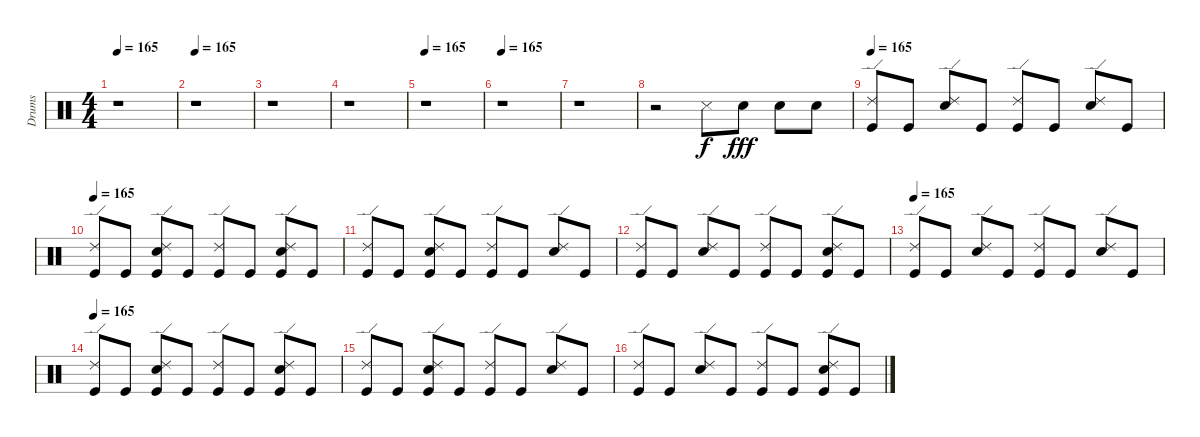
\track ("Drums" "Drums") {instrument percussion}
\staff {score}
\articulation defaults
\ts (4 4)
\tempo 165
\clef neutral
\ks c
r.1{dy f} |
\tempo 165
r.1 |
r.1 |
r.1 |
\tempo 165
r.1 |
\tempo 165
r.1 |
r.1 |
r.2 "Snare (side stick) 3".8 "Snare (hit) 2".8{dy fff} "Snare (hit) 2".8 "Snare (hit) 2".8 |
\tempo 165
("Ride (edge) 2" "Kick (hit)").8 "Kick (hit)".8 ("Ride (edge) 2" "Snare (hit) 2").8 "Kick (hit)".8 ("Ride (edge) 2" "Kick (hit)").8 "Kick (hit)".8 ("Ride (edge) 2" "Snare (hit) 2").8 "Kick (hit)".8 |
\tempo 165
("Ride (edge) 2" "Kick (hit)").8 "Kick (hit)".8 ("Ride (edge) 2" "Snare (hit) 2" "Kick (hit)").8 "Kick (hit)".8 ("Ride (edge) 2" "Kick (hit)").8 "Kick (hit)".8 ("Ride (edge) 2" "Snare (hit) 2" "Kick (hit)").8 "Kick (hit)".8 |
("Ride (edge) 2" "Kick (hit)").8 "Kick (hit)".8 ("Ride (edge) 2" "Snare (hit) 2" "Kick (hit)").8 "Kick (hit)".8 ("Ride (edge) 2" "Kick (hit)").8 "Kick (hit)".8 ("Ride (edge) 2" "Snare (hit) 2").8 "Kick (hit)".8 |
("Ride (edge) 2" "Kick (hit)").8 "Kick (hit)".8 ("Ride (edge) 2" "Snare (hit) 2").8 "Kick (hit)".8 ("Ride (edge) 2" "Kick (hit)").8 "Kick (hit)".8 ("Ride (edge) 2" "Snare (hit) 2" "Kick (hit)").8 "Kick (hit)".8 |
\tempo 165
("Ride (edge) 2" "Kick (hit)").8 "Kick (hit)".8 ("Ride (edge) 2" "Snare (hit) 2").8 "Kick (hit)".8 ("Ride (edge) 2" "Kick (hit)").8 "Kick (hit)".8 ("Ride (edge) 2" "Snare (hit) 2").8 "Kick (hit)".8 |
\tempo 165
("Ride (edge) 2" "Kick (hit)").8 "Kick (hit)".8 ("Ride (edge) 2" "Snare (hit) 2" "Kick (hit)").8 "Kick (hit)".8 ("Ride (edge) 2" "Kick (hit)").8 "Kick (hit)".8 ("Ride (edge) 2" "Snare (hit) 2" "Kick (hit)").8 "Kick (hit)".8 |
("Ride (edge) 2" "Kick (hit)").8 "Kick (hit)".8 ("Ride (edge) 2" "Snare (hit) 2" "Kick (hit)").8 "Kick (hit)".8 ("Ride (edge) 2" "Kick (hit)").8 "Kick (hit)".8 ("Ride (edge) 2" "Snare (hit) 2").8 "Kick (hit)".8 |
("Ride (edge) 2" "Kick (hit)").8 "Kick (hit)".8 ("Ride (edge) 2" "Snare (hit) 2").8 "Kick (hit)".8 ("Ride (edge) 2" "Kick (hit)").8 "Kick (hit)".8 ("Ride (edge) 2" "Snare (hit) 2" "Kick (hit)").8 "Kick (hit)".8
